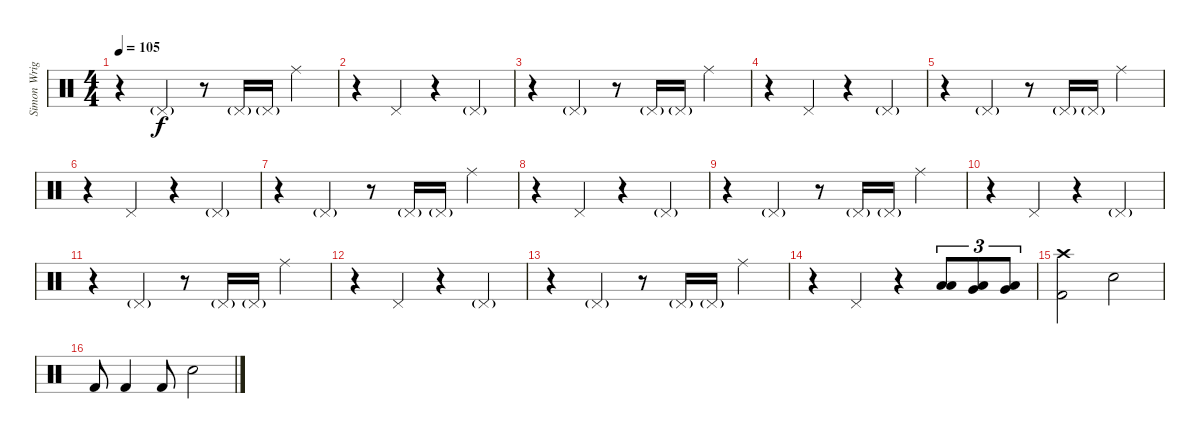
\track ("Simon Wright" "Simon Wrig") {instrument percussion}
\staff {score}
\articulation defaults
\ts (4 4)
\tempo 105
\clef neutral
\ks c
r.4{dy f} "Pedal Hi-Hat (hit)"{g}.4 r.8 "Pedal Hi-Hat (hit)"{g}.16 "Pedal Hi-Hat (hit)"{g}.16 "Ride (middle)".4 |
r.4 "Pedal Hi-Hat (hit)".4 r.4 "Pedal Hi-Hat (hit)"{g}.4 |
r.4 "Pedal Hi-Hat (hit)"{g}.4 r.8 "Pedal Hi-Hat (hit)"{g}.16 "Pedal Hi-Hat (hit)"{g}.16 "Ride (middle)".4 |
r.4 "Pedal Hi-Hat (hit)".4 r.4 "Pedal Hi-Hat (hit)"{g}.4 |
r.4 "Pedal Hi-Hat (hit)"{g}.4 r.8 "Pedal Hi-Hat (hit)"{g}.16 "Pedal Hi-Hat (hit)"{g}.16 "Ride (middle)".4 |
r.4 "Pedal Hi-Hat (hit)".4 r.4 "Pedal Hi-Hat (hit)"{g}.4 |
r.4 "Pedal Hi-Hat (hit)"{g}.4 r.8 "Pedal Hi-Hat (hit)"{g}.16 "Pedal Hi-Hat (hit)"{g}.16 "Ride (middle)".4 |
r.4 "Pedal Hi-Hat (hit)".4 r.4 "Pedal Hi-Hat (hit)"{g}.4 |
r.4 "Pedal Hi-Hat (hit)"{g}.4 r.8 "Pedal Hi-Hat (hit)"{g}.16 "Pedal Hi-Hat (hit)"{g}.16 "Ride (middle)".4 |
r.4 "Pedal Hi-Hat (hit)".4 r.4 "Pedal Hi-Hat (hit)"{g}.4 |
r.4 "Pedal Hi-Hat (hit)"{g}.4 r.8 "Pedal Hi-Hat (hit)"{g}.16 "Pedal Hi-Hat (hit)"{g}.16 "Ride (middle)".4 |
r.4 "Pedal Hi-Hat (hit)".4 r.4 "Pedal Hi-Hat (hit)"{g}.4 |
r.4 "Pedal Hi-Hat (hit)"{g}.4 r.8 "Pedal Hi-Hat (hit)"{g}.16 "Pedal Hi-Hat (hit)"{g}.16 "Ride (middle)".4 |
r.4 "Pedal Hi-Hat (hit)".4 r.4 ("Low Tom (hit)" "Low Floor Tom (hit)").8{tu (3 2)} ("Very Low Tom (hit)" "Low Floor Tom (hit)").8{tu (3 2)} ("Very Low Tom (hit)" "Low Floor Tom (hit)").8{tu (3 2)} |
("Crash high (hit)" "Kick (hit) 2").2 "Snare (hit) 2".2 |
"Kick (hit) 2".8 "Kick (hit) 2".4 "Kick (hit) 2".8 "Snare (hit) 2".2
